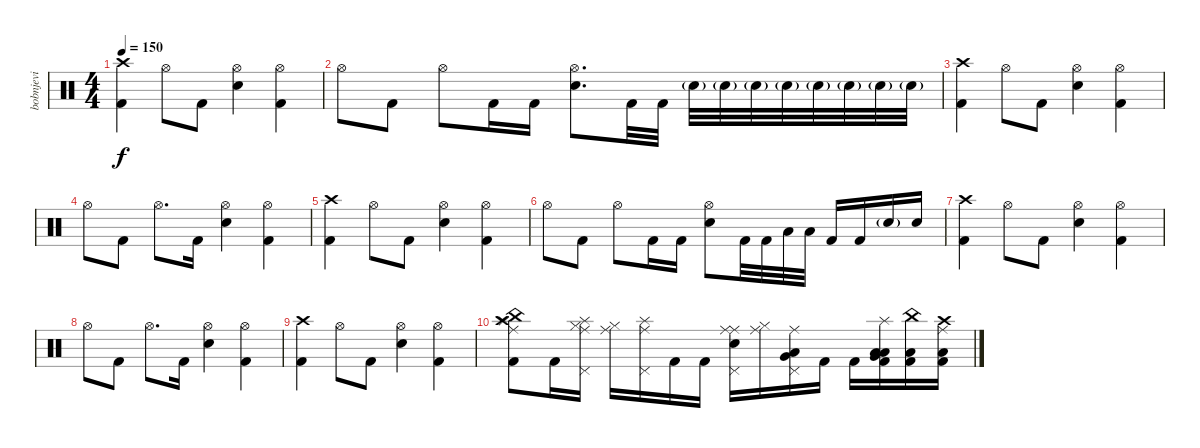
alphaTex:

\track ("bobnjevi" "bobnjevi") {instrument percussion}
\staff {score}
\articulation defaults
\ts (4 4)
\tempo 150
\clef neutral
\ks c
("Crash high (hit)" "Kick (hit) 2").4{dy f} "Hi-Hat (open)".8 "Kick (hit) 2".8 ("Hi-Hat (open)" "Electric Snare (hit)").4 ("Hi-Hat (open)" "Kick (hit) 2").4 |
"Hi-Hat (open)".8 "Kick (hit) 2".8 "Hi-Hat (open)".8 "Kick (hit) 2".16 "Kick (hit) 2".16 ("Hi-Hat (open)" "Electric Snare (hit)").8{d} "Kick (hit) 2".32 "Kick (hit) 2".32 "Electric Snare (hit)"{g}.32 "Electric Snare (hit)"{g}.32 "Electric Snare (hit)"{g}.32 "Electric Snare (hit)"{g}.32 "Electric Snare (hit)"{g}.32 "Electric Snare (hit)"{g}.32 "Electric Snare (hit)"{g}.32 "Electric Snare (hit)"{g}.32 |
("Crash high (hit)" "Kick (hit) 2").4 "Hi-Hat (open)".8 "Kick (hit) 2".8 ("Hi-Hat (open)" "Electric Snare (hit)").4 ("Hi-Hat (open)" "Kick (hit) 2").4 |
"Hi-Hat (open)".8 "Kick (hit) 2".8 "Hi-Hat (open)".8{d} "Kick (hit) 2".16 ("Hi-Hat (open)" "Electric Snare (hit)").4 ("Hi-Hat (open)" "Kick (hit) 2").4 |
("Crash high (hit)" "Kick (hit) 2").4 "Hi-Hat (open)".8 "Kick (hit) 2".8 ("Hi-Hat (open)" "Electric Snare (hit)").4 ("Hi-Hat (open)" "Kick (hit) 2").4 |
"Hi-Hat (open)".8 "Kick (hit) 2".8 "Hi-Hat (open)".8 "Kick (hit) 2".16 "Kick (hit) 2".16 ("Hi-Hat (open)" "Electric Snare (hit)").8 "Kick (hit) 2".32 "Kick (hit) 2".32 "Low Tom (hit)".32 "Low Tom (hit)".32 "Kick (hit) 2".16 "Kick (hit) 2".16 "Electric Snare (hit)"{g}.16 "Electric Snare (hit)".16 |
("Crash high (hit)" "Kick (hit) 2").4 "Hi-Hat (open)".8 "Kick (hit) 2".8 ("Hi-Hat (open)" "Electric Snare (hit)").4 ("Hi-Hat (open)" "Kick (hit) 2").4 |
"Hi-Hat (open)".8 "Kick (hit) 2".8 "Hi-Hat (open)".8{d} "Kick (hit) 2".16 ("Hi-Hat (open)" "Electric Snare (hit)").4 ("Hi-Hat (open)" "Kick (hit) 2").4 |
("Crash high (hit)" "Kick (hit) 2").4 "Hi-Hat (open)".8 "Kick (hit) 2".8 ("Hi-Hat (open)" "Electric Snare (hit)").4 ("Hi-Hat (open)" "Kick (hit) 2").4 |
("Crash high (hit)" "China (hit)" "Ride (middle)" "Splash (hit)" "Kick (hit) 2").8 "Kick (hit) 2".16 ("Ride (middle)" "Pedal Hi-Hat (hit)" "Hi-Hat (closed)" "Splash (hit)").16 ("Ride (middle)" "Hi-Hat (closed)").16 ("Ride (middle)" "Pedal Hi-Hat (hit)" "Splash (hit)").16 "Kick (hit) 2".16 "Kick (hit) 2".16 ("Ride (middle)" "Snare (hit) 2" "Ride (middle)" "Pedal Hi-Hat (hit)").16 ("Ride (middle)" "Hi-Hat (closed)").16 ("Ride (middle)" "Very Low Tom (hit)" "Low Tom (hit)" "Pedal Hi-Hat (hit)").16 "Kick (hit) 2".16 "Kick (hit) 2".16 ("Splash (hit)" "Very Low Tom (hit)" "Low Tom (hit)" "Low Floor Tom (hit)" "Kick (hit) 2").16 ("China (hit)" "Low Floor Tom (hit)" "Kick (hit) 2").16 ("Crash high (hit)" "Low Floor Tom (hit)" "Ride (middle)" "Kick (hit) 2").16
